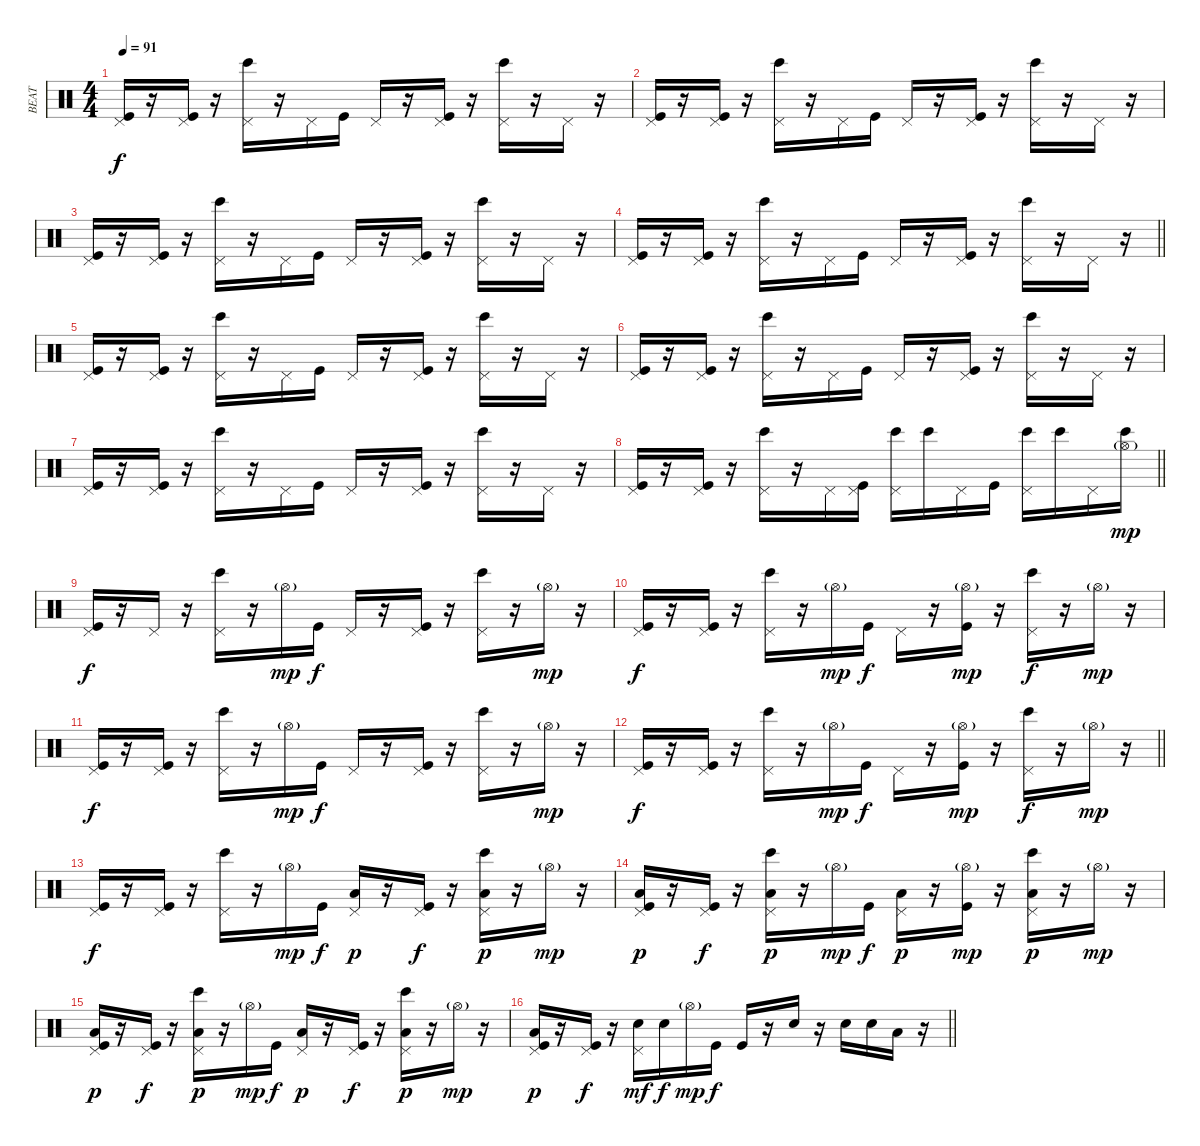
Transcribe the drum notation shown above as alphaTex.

\track ("BEAT" "BEAT") {instrument percussion}
\staff {score}
\articulation defaults
\ts (4 4)
\tempo 91
\clef neutral
\ks c
("Pedal Hi-Hat (hit)" "Kick (hit)").16{dy f} r.16 ("Pedal Hi-Hat (hit)" "Kick (hit)").16 r.16 ("Pedal Hi-Hat (hit)" "Bongo High (hit)").16 r.16 "Pedal Hi-Hat (hit)".16 "Kick (hit)".16 "Pedal Hi-Hat (hit)".16 r.16 ("Pedal Hi-Hat (hit)" "Kick (hit)").16 r.16 ("Pedal Hi-Hat (hit)" "Bongo High (hit)").16 r.16 "Pedal Hi-Hat (hit)".16 r.16 |
("Pedal Hi-Hat (hit)" "Kick (hit)").16 r.16 ("Pedal Hi-Hat (hit)" "Kick (hit)").16 r.16 ("Pedal Hi-Hat (hit)" "Bongo High (hit)").16 r.16 "Pedal Hi-Hat (hit)".16 "Kick (hit)".16 "Pedal Hi-Hat (hit)".16 r.16 ("Pedal Hi-Hat (hit)" "Kick (hit)").16 r.16 ("Pedal Hi-Hat (hit)" "Bongo High (hit)").16 r.16 "Pedal Hi-Hat (hit)".16 r.16 |
("Pedal Hi-Hat (hit)" "Kick (hit)").16 r.16 ("Pedal Hi-Hat (hit)" "Kick (hit)").16 r.16 ("Pedal Hi-Hat (hit)" "Bongo High (hit)").16 r.16 "Pedal Hi-Hat (hit)".16 "Kick (hit)".16 "Pedal Hi-Hat (hit)".16 r.16 ("Pedal Hi-Hat (hit)" "Kick (hit)").16 r.16 ("Pedal Hi-Hat (hit)" "Bongo High (hit)").16 r.16 "Pedal Hi-Hat (hit)".16 r.16 |
\barLineRight lightlight
("Pedal Hi-Hat (hit)" "Kick (hit)").16 r.16 ("Pedal Hi-Hat (hit)" "Kick (hit)").16 r.16 ("Pedal Hi-Hat (hit)" "Bongo High (hit)").16 r.16 "Pedal Hi-Hat (hit)".16 "Kick (hit)".16 "Pedal Hi-Hat (hit)".16 r.16 ("Pedal Hi-Hat (hit)" "Kick (hit)").16 r.16 ("Pedal Hi-Hat (hit)" "Bongo High (hit)").16 r.16 "Pedal Hi-Hat (hit)".16 r.16 |
("Pedal Hi-Hat (hit)" "Kick (hit)").16 r.16 ("Pedal Hi-Hat (hit)" "Kick (hit)").16 r.16 ("Pedal Hi-Hat (hit)" "Bongo High (hit)").16 r.16 "Pedal Hi-Hat (hit)".16 "Kick (hit)".16 "Pedal Hi-Hat (hit)".16 r.16 ("Pedal Hi-Hat (hit)" "Kick (hit)").16 r.16 ("Pedal Hi-Hat (hit)" "Bongo High (hit)").16 r.16 "Pedal Hi-Hat (hit)".16 r.16 |
("Pedal Hi-Hat (hit)" "Kick (hit)").16 r.16 ("Pedal Hi-Hat (hit)" "Kick (hit)").16 r.16 ("Pedal Hi-Hat (hit)" "Bongo High (hit)").16 r.16 "Pedal Hi-Hat (hit)".16 "Kick (hit)".16 "Pedal Hi-Hat (hit)".16 r.16 ("Pedal Hi-Hat (hit)" "Kick (hit)").16 r.16 ("Pedal Hi-Hat (hit)" "Bongo High (hit)").16 r.16 "Pedal Hi-Hat (hit)".16 r.16 |
("Pedal Hi-Hat (hit)" "Kick (hit)").16 r.16 ("Pedal Hi-Hat (hit)" "Kick (hit)").16 r.16 ("Pedal Hi-Hat (hit)" "Bongo High (hit)").16 r.16 "Pedal Hi-Hat (hit)".16 "Kick (hit)".16 "Pedal Hi-Hat (hit)".16 r.16 ("Pedal Hi-Hat (hit)" "Kick (hit)").16 r.16 ("Pedal Hi-Hat (hit)" "Bongo High (hit)").16 r.16 "Pedal Hi-Hat (hit)".16 r.16 |
\barLineRight lightlight
("Pedal Hi-Hat (hit)" "Kick (hit)").16 r.16 ("Pedal Hi-Hat (hit)" "Kick (hit)").16 r.16 ("Pedal Hi-Hat (hit)" "Bongo High (hit)").16 r.16 "Pedal Hi-Hat (hit)".16 ("Pedal Hi-Hat (hit)" "Kick (hit)").16 ("Pedal Hi-Hat (hit)" "Bongo High (hit)").16 "Bongo High (hit)".16 "Pedal Hi-Hat (hit)".16 "Kick (hit)".16 ("Pedal Hi-Hat (hit)" "Bongo High (hit)").16 "Bongo High (hit)".16 "Pedal Hi-Hat (hit)".16 ("Hi-Hat (open)"{g} "Bongo High (hit)").16{dy mp} |
\section ("" "")
("Pedal Hi-Hat (hit)" "Kick (hit)").16{dy f} r.16 "Pedal Hi-Hat (hit)".16 r.16 ("Pedal Hi-Hat (hit)" "Bongo High (hit)").16 r.16 "Hi-Hat (open)"{g}.16{dy mp} "Kick (hit)".16{dy f} "Pedal Hi-Hat (hit)".16 r.16 ("Pedal Hi-Hat (hit)" "Kick (hit)").16 r.16 ("Pedal Hi-Hat (hit)" "Bongo High (hit)").16 r.16 "Hi-Hat (open)"{g}.16{dy mp} r.16 |
("Pedal Hi-Hat (hit)" "Kick (hit)").16{dy f} r.16 ("Pedal Hi-Hat (hit)" "Kick (hit)").16 r.16 ("Pedal Hi-Hat (hit)" "Bongo High (hit)").16 r.16 "Hi-Hat (open)"{g}.16{dy mp} "Kick (hit)".16{dy f} "Pedal Hi-Hat (hit)".16 r.16 ("Hi-Hat (open)"{g} "Kick (hit)").16{dy mp} r.16 ("Pedal Hi-Hat (hit)" "Bongo High (hit)").16{dy f} r.16 "Hi-Hat (open)"{g}.16{dy mp} r.16 |
("Pedal Hi-Hat (hit)" "Kick (hit)").16{dy f} r.16 ("Pedal Hi-Hat (hit)" "Kick (hit)").16 r.16 ("Pedal Hi-Hat (hit)" "Bongo High (hit)").16 r.16 "Hi-Hat (open)"{g}.16{dy mp} "Kick (hit)".16{dy f} "Pedal Hi-Hat (hit)".16 r.16 ("Pedal Hi-Hat (hit)" "Kick (hit)").16 r.16 ("Pedal Hi-Hat (hit)" "Bongo High (hit)").16 r.16 "Hi-Hat (open)"{g}.16{dy mp} r.16 |
\barLineRight lightlight
("Pedal Hi-Hat (hit)" "Kick (hit)").16{dy f} r.16 ("Pedal Hi-Hat (hit)" "Kick (hit)").16 r.16 ("Pedal Hi-Hat (hit)" "Bongo High (hit)").16 r.16 "Hi-Hat (open)"{g}.16{dy mp} "Kick (hit)".16{dy f} "Pedal Hi-Hat (hit)".16 r.16 ("Hi-Hat (open)"{g} "Kick (hit)").16{dy mp} r.16 ("Pedal Hi-Hat (hit)" "Bongo High (hit)").16{dy f} r.16 "Hi-Hat (open)"{g}.16{dy mp} r.16 |
\section ("" "")
("Pedal Hi-Hat (hit)" "Kick (hit)").16{dy f} r.16 ("Pedal Hi-Hat (hit)" "Kick (hit)").16 r.16 ("Pedal Hi-Hat (hit)" "Bongo High (hit)").16 r.16 "Hi-Hat (open)"{g}.16{dy mp} "Kick (hit)".16{dy f} ("Pedal Hi-Hat (hit)" "Low Tom (hit)").16{dy p} r.16 ("Pedal Hi-Hat (hit)" "Kick (hit)").16{dy f} r.16 ("Pedal Hi-Hat (hit)" "Bongo High (hit)" "Low Tom (hit)").16{dy p} r.16 "Hi-Hat (open)"{g}.16{dy mp} r.16 |
("Pedal Hi-Hat (hit)" "Low Tom (hit)" "Kick (hit)").16{dy p} r.16 ("Pedal Hi-Hat (hit)" "Kick (hit)").16{dy f} r.16 ("Pedal Hi-Hat (hit)" "Bongo High (hit)" "Low Tom (hit)").16{dy p} r.16 "Hi-Hat (open)"{g}.16{dy mp} "Kick (hit)".16{dy f} ("Pedal Hi-Hat (hit)" "Low Tom (hit)").16{dy p} r.16 ("Hi-Hat (open)"{g} "Kick (hit)").16{dy mp} r.16 ("Pedal Hi-Hat (hit)" "Bongo High (hit)" "Low Tom (hit)").16{dy p} r.16 "Hi-Hat (open)"{g}.16{dy mp} r.16 |
("Pedal Hi-Hat (hit)" "Low Tom (hit)" "Kick (hit)").16{dy p} r.16 ("Pedal Hi-Hat (hit)" "Kick (hit)").16{dy f} r.16 ("Pedal Hi-Hat (hit)" "Bongo High (hit)" "Low Tom (hit)").16{dy p} r.16 "Hi-Hat (open)"{g}.16{dy mp} "Kick (hit)".16{dy f} ("Pedal Hi-Hat (hit)" "Low Tom (hit)").16{dy p} r.16 ("Pedal Hi-Hat (hit)" "Kick (hit)").16{dy f} r.16 ("Pedal Hi-Hat (hit)" "Bongo High (hit)" "Low Tom (hit)").16{dy p} r.16 "Hi-Hat (open)"{g}.16{dy mp} r.16 |
\barLineRight lightlight
("Pedal Hi-Hat (hit)" "Low Tom (hit)" "Kick (hit)").16{dy p} r.16 ("Pedal Hi-Hat (hit)" "Kick (hit)").16{dy f} r.16 ("Pedal Hi-Hat (hit)" "Electric Snare (hit)").16{dy mf} "Electric Snare (hit)".16{dy f} "Hi-Hat (open)"{g}.16{dy mp} "Kick (hit)".16{dy f} "Kick (hit)".16 r.16 "Electric Snare (hit)".16 r.16 "Electric Snare (hit)".16 "Electric Snare (hit)".16 "Low Tom (hit)".16 r.16
